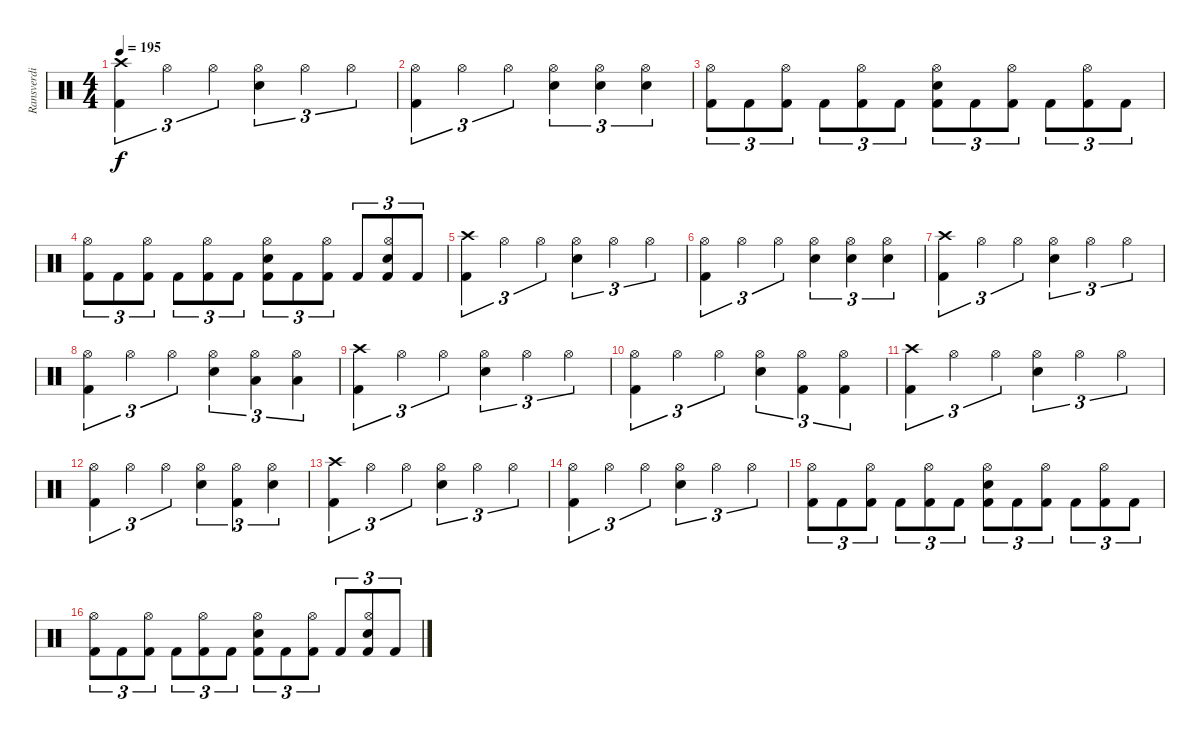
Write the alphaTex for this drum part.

\track ("Ransverdi" "Ransverdi") {instrument percussion}
\staff {score}
\articulation defaults
\ts (4 4)
\tempo 195
\clef neutral
\ks c
("Crash high (hit)" "Kick (hit) 2").4{tu (3 2) dy f} "Hi-Hat (open)".4{tu (3 2)} "Hi-Hat (open)".4{tu (3 2)} ("Hi-Hat (open)" "Snare (hit) 2").4{tu (3 2)} "Hi-Hat (open)".4{tu (3 2)} "Hi-Hat (open)".4{tu (3 2)} |
("Hi-Hat (open)" "Kick (hit) 2").4{tu (3 2)} "Hi-Hat (open)".4{tu (3 2)} "Hi-Hat (open)".4{tu (3 2)} ("Hi-Hat (open)" "Snare (hit) 2").4{tu (3 2)} ("Hi-Hat (open)" "Snare (hit) 2").4{tu (3 2)} ("Hi-Hat (open)" "Snare (hit) 2").4{tu (3 2)} |
("Hi-Hat (open)" "Kick (hit) 2").8{tu (3 2)} "Kick (hit) 2".8{tu (3 2)} ("Hi-Hat (open)" "Kick (hit) 2").8{tu (3 2)} "Kick (hit) 2".8{tu (3 2)} ("Hi-Hat (open)" "Kick (hit) 2").8{tu (3 2)} "Kick (hit) 2".8{tu (3 2)} ("Hi-Hat (open)" "Snare (hit) 2" "Kick (hit) 2").8{tu (3 2)} "Kick (hit) 2".8{tu (3 2)} ("Hi-Hat (open)" "Kick (hit) 2").8{tu (3 2)} "Kick (hit) 2".8{tu (3 2)} ("Hi-Hat (open)" "Kick (hit) 2").8{tu (3 2)} "Kick (hit) 2".8{tu (3 2)} |
("Hi-Hat (open)" "Kick (hit) 2").8{tu (3 2)} "Kick (hit) 2".8{tu (3 2)} ("Hi-Hat (open)" "Kick (hit) 2").8{tu (3 2)} "Kick (hit) 2".8{tu (3 2)} ("Hi-Hat (open)" "Kick (hit) 2").8{tu (3 2)} "Kick (hit) 2".8{tu (3 2)} ("Hi-Hat (open)" "Snare (hit) 2" "Kick (hit) 2").8{tu (3 2)} "Kick (hit) 2".8{tu (3 2)} ("Hi-Hat (open)" "Kick (hit) 2").8{tu (3 2)} "Kick (hit) 2".8{tu (3 2)} ("Hi-Hat (open)" "Snare (hit) 2" "Kick (hit) 2").8{tu (3 2)} "Kick (hit) 2".8{tu (3 2)} |
("Crash high (hit)" "Kick (hit) 2").4{tu (3 2)} "Hi-Hat (open)".4{tu (3 2)} "Hi-Hat (open)".4{tu (3 2)} ("Hi-Hat (open)" "Snare (hit) 2").4{tu (3 2)} "Hi-Hat (open)".4{tu (3 2)} "Hi-Hat (open)".4{tu (3 2)} |
("Hi-Hat (open)" "Kick (hit) 2").4{tu (3 2)} "Hi-Hat (open)".4{tu (3 2)} "Hi-Hat (open)".4{tu (3 2)} ("Hi-Hat (open)" "Snare (hit) 2").4{tu (3 2)} ("Hi-Hat (open)" "Snare (hit) 2").4{tu (3 2)} ("Hi-Hat (open)" "Snare (hit) 2").4{tu (3 2)} |
("Crash high (hit)" "Kick (hit) 2").4{tu (3 2)} "Hi-Hat (open)".4{tu (3 2)} "Hi-Hat (open)".4{tu (3 2)} ("Hi-Hat (open)" "Snare (hit) 2").4{tu (3 2)} "Hi-Hat (open)".4{tu (3 2)} "Hi-Hat (open)".4{tu (3 2)} |
("Hi-Hat (open)" "Kick (hit) 2").4{tu (3 2)} "Hi-Hat (open)".4{tu (3 2)} "Hi-Hat (open)".4{tu (3 2)} ("Hi-Hat (open)" "Snare (hit) 2").4{tu (3 2)} ("Hi-Hat (open)" "Low Tom (hit)").4{tu (3 2)} ("Hi-Hat (open)" "Low Tom (hit)").4{tu (3 2)} |
("Crash high (hit)" "Kick (hit) 2").4{tu (3 2)} "Hi-Hat (open)".4{tu (3 2)} "Hi-Hat (open)".4{tu (3 2)} ("Hi-Hat (open)" "Snare (hit) 2").4{tu (3 2)} "Hi-Hat (open)".4{tu (3 2)} "Hi-Hat (open)".4{tu (3 2)} |
("Hi-Hat (open)" "Kick (hit) 2").4{tu (3 2)} "Hi-Hat (open)".4{tu (3 2)} "Hi-Hat (open)".4{tu (3 2)} ("Hi-Hat (open)" "Snare (hit) 2").4{tu (3 2)} ("Hi-Hat (open)" "Kick (hit) 2").4{tu (3 2)} ("Hi-Hat (open)" "Kick (hit) 2").4{tu (3 2)} |
("Crash high (hit)" "Kick (hit) 2").4{tu (3 2)} "Hi-Hat (open)".4{tu (3 2)} "Hi-Hat (open)".4{tu (3 2)} ("Hi-Hat (open)" "Snare (hit) 2").4{tu (3 2)} "Hi-Hat (open)".4{tu (3 2)} "Hi-Hat (open)".4{tu (3 2)} |
("Hi-Hat (open)" "Kick (hit) 2").4{tu (3 2)} "Hi-Hat (open)".4{tu (3 2)} "Hi-Hat (open)".4{tu (3 2)} ("Hi-Hat (open)" "Snare (hit) 2").4{tu (3 2)} ("Hi-Hat (open)" "Kick (hit) 2").4{tu (3 2)} ("Hi-Hat (open)" "Snare (hit) 2").4{tu (3 2)} |
("Crash high (hit)" "Kick (hit) 2").4{tu (3 2)} "Hi-Hat (open)".4{tu (3 2)} "Hi-Hat (open)".4{tu (3 2)} ("Hi-Hat (open)" "Snare (hit) 2").4{tu (3 2)} "Hi-Hat (open)".4{tu (3 2)} "Hi-Hat (open)".4{tu (3 2)} |
("Hi-Hat (open)" "Kick (hit) 2").4{tu (3 2)} "Hi-Hat (open)".4{tu (3 2)} "Hi-Hat (open)".4{tu (3 2)} ("Hi-Hat (open)" "Snare (hit) 2").4{tu (3 2)} "Hi-Hat (open)".4{tu (3 2)} "Hi-Hat (open)".4{tu (3 2)} |
("Hi-Hat (open)" "Kick (hit) 2").8{tu (3 2)} "Kick (hit) 2".8{tu (3 2)} ("Hi-Hat (open)" "Kick (hit) 2").8{tu (3 2)} "Kick (hit) 2".8{tu (3 2)} ("Hi-Hat (open)" "Kick (hit) 2").8{tu (3 2)} "Kick (hit) 2".8{tu (3 2)} ("Hi-Hat (open)" "Snare (hit) 2" "Kick (hit) 2").8{tu (3 2)} "Kick (hit) 2".8{tu (3 2)} ("Hi-Hat (open)" "Kick (hit) 2").8{tu (3 2)} "Kick (hit) 2".8{tu (3 2)} ("Hi-Hat (open)" "Kick (hit) 2").8{tu (3 2)} "Kick (hit) 2".8{tu (3 2)} |
("Hi-Hat (open)" "Kick (hit) 2").8{tu (3 2)} "Kick (hit) 2".8{tu (3 2)} ("Hi-Hat (open)" "Kick (hit) 2").8{tu (3 2)} "Kick (hit) 2".8{tu (3 2)} ("Hi-Hat (open)" "Kick (hit) 2").8{tu (3 2)} "Kick (hit) 2".8{tu (3 2)} ("Hi-Hat (open)" "Snare (hit) 2" "Kick (hit) 2").8{tu (3 2)} "Kick (hit) 2".8{tu (3 2)} ("Hi-Hat (open)" "Kick (hit) 2").8{tu (3 2)} "Kick (hit) 2".8{tu (3 2)} ("Hi-Hat (open)" "Snare (hit) 2" "Kick (hit) 2").8{tu (3 2)} "Kick (hit) 2".8{tu (3 2)}
